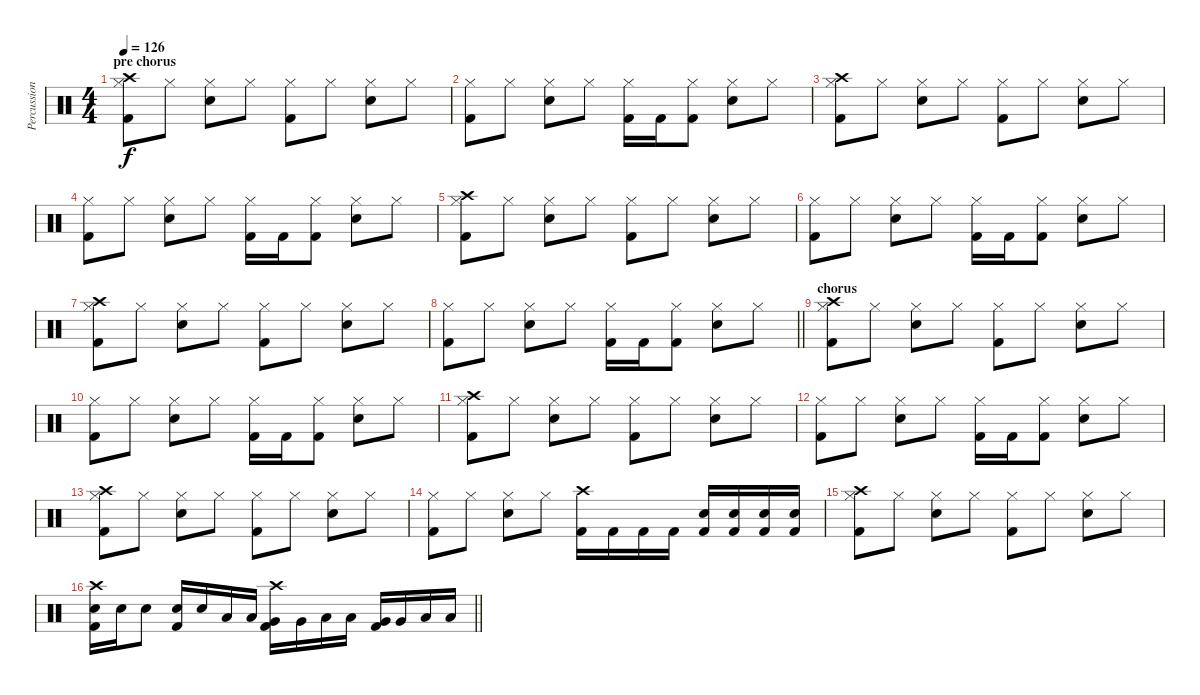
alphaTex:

\track ("Percussion" "Percussion") {instrument percussion}
\staff {score}
\articulation defaults
\ts (4 4)
\section ("" "pre chorus")
\tempo 126
\clef neutral
\ks c
("Hi-Hat (closed)" "Crash high (hit)" "Kick (hit) 2").8{dy f} "Hi-Hat (closed)".8 ("Hi-Hat (closed)" "Electric Snare (hit)").8 "Hi-Hat (closed)".8 ("Hi-Hat (closed)" "Kick (hit) 2").8 "Hi-Hat (closed)".8 ("Hi-Hat (closed)" "Electric Snare (hit)").8 "Hi-Hat (closed)".8 |
("Hi-Hat (closed)" "Kick (hit) 2").8 "Hi-Hat (closed)".8 ("Hi-Hat (closed)" "Electric Snare (hit)").8 "Hi-Hat (closed)".8 ("Hi-Hat (closed)" "Kick (hit) 2").16 "Kick (hit) 2".16 ("Hi-Hat (closed)" "Kick (hit) 2").8 ("Hi-Hat (closed)" "Electric Snare (hit)").8 "Hi-Hat (closed)".8 |
("Hi-Hat (closed)" "Crash high (hit)" "Kick (hit) 2").8 "Hi-Hat (closed)".8 ("Hi-Hat (closed)" "Electric Snare (hit)").8 "Hi-Hat (closed)".8 ("Hi-Hat (closed)" "Kick (hit) 2").8 "Hi-Hat (closed)".8 ("Hi-Hat (closed)" "Electric Snare (hit)").8 "Hi-Hat (closed)".8 |
("Hi-Hat (closed)" "Kick (hit) 2").8 "Hi-Hat (closed)".8 ("Hi-Hat (closed)" "Electric Snare (hit)").8 "Hi-Hat (closed)".8 ("Hi-Hat (closed)" "Kick (hit) 2").16 "Kick (hit) 2".16 ("Hi-Hat (closed)" "Kick (hit) 2").8 ("Hi-Hat (closed)" "Electric Snare (hit)").8 "Hi-Hat (closed)".8 |
("Hi-Hat (closed)" "Crash high (hit)" "Kick (hit) 2").8 "Hi-Hat (closed)".8 ("Hi-Hat (closed)" "Electric Snare (hit)").8 "Hi-Hat (closed)".8 ("Hi-Hat (closed)" "Kick (hit) 2").8 "Hi-Hat (closed)".8 ("Hi-Hat (closed)" "Electric Snare (hit)").8 "Hi-Hat (closed)".8 |
("Hi-Hat (closed)" "Kick (hit) 2").8 "Hi-Hat (closed)".8 ("Hi-Hat (closed)" "Electric Snare (hit)").8 "Hi-Hat (closed)".8 ("Hi-Hat (closed)" "Kick (hit) 2").16 "Kick (hit) 2".16 ("Hi-Hat (closed)" "Kick (hit) 2").8 ("Hi-Hat (closed)" "Electric Snare (hit)").8 "Hi-Hat (closed)".8 |
("Hi-Hat (closed)" "Crash high (hit)" "Kick (hit) 2").8 "Hi-Hat (closed)".8 ("Hi-Hat (closed)" "Electric Snare (hit)").8 "Hi-Hat (closed)".8 ("Hi-Hat (closed)" "Kick (hit) 2").8 "Hi-Hat (closed)".8 ("Hi-Hat (closed)" "Electric Snare (hit)").8 "Hi-Hat (closed)".8 |
\barLineRight lightlight
("Hi-Hat (closed)" "Kick (hit) 2").8 "Hi-Hat (closed)".8 ("Hi-Hat (closed)" "Electric Snare (hit)").8 "Hi-Hat (closed)".8 ("Hi-Hat (closed)" "Kick (hit) 2").16 "Kick (hit) 2".16 ("Hi-Hat (closed)" "Kick (hit) 2").8 ("Hi-Hat (closed)" "Electric Snare (hit)").8 "Hi-Hat (closed)".8 |
\section ("" "chorus")
("Hi-Hat (closed)" "Crash high (hit)" "Kick (hit) 2").8 "Hi-Hat (closed)".8 ("Hi-Hat (closed)" "Electric Snare (hit)").8 "Hi-Hat (closed)".8 ("Hi-Hat (closed)" "Kick (hit) 2").8 "Hi-Hat (closed)".8 ("Hi-Hat (closed)" "Electric Snare (hit)").8 "Hi-Hat (closed)".8 |
("Hi-Hat (closed)" "Kick (hit) 2").8 "Hi-Hat (closed)".8 ("Hi-Hat (closed)" "Electric Snare (hit)").8 "Hi-Hat (closed)".8 ("Hi-Hat (closed)" "Kick (hit) 2").16 "Kick (hit) 2".16 ("Hi-Hat (closed)" "Kick (hit) 2").8 ("Hi-Hat (closed)" "Electric Snare (hit)").8 "Hi-Hat (closed)".8 |
("Hi-Hat (closed)" "Crash high (hit)" "Kick (hit) 2").8 "Hi-Hat (closed)".8 ("Hi-Hat (closed)" "Electric Snare (hit)").8 "Hi-Hat (closed)".8 ("Hi-Hat (closed)" "Kick (hit) 2").8 "Hi-Hat (closed)".8 ("Hi-Hat (closed)" "Electric Snare (hit)").8 "Hi-Hat (closed)".8 |
("Hi-Hat (closed)" "Kick (hit) 2").8 "Hi-Hat (closed)".8 ("Hi-Hat (closed)" "Electric Snare (hit)").8 "Hi-Hat (closed)".8 ("Hi-Hat (closed)" "Kick (hit) 2").16 "Kick (hit) 2".16 ("Hi-Hat (closed)" "Kick (hit) 2").8 ("Hi-Hat (closed)" "Electric Snare (hit)").8 "Hi-Hat (closed)".8 |
("Hi-Hat (closed)" "Crash high (hit)" "Kick (hit) 2").8 "Hi-Hat (closed)".8 ("Hi-Hat (closed)" "Electric Snare (hit)").8 "Hi-Hat (closed)".8 ("Hi-Hat (closed)" "Kick (hit) 2").8 "Hi-Hat (closed)".8 ("Hi-Hat (closed)" "Electric Snare (hit)").8 "Hi-Hat (closed)".8 |
("Hi-Hat (closed)" "Kick (hit) 2").8 "Hi-Hat (closed)".8 ("Hi-Hat (closed)" "Electric Snare (hit)").8 "Hi-Hat (closed)".8 ("Kick (hit) 2" "Crash high (hit)").16 "Kick (hit) 2".16 "Kick (hit) 2".16 "Kick (hit) 2".16 ("Kick (hit) 2" "Electric Snare (hit)").16 ("Kick (hit) 2" "Electric Snare (hit)").16 ("Kick (hit) 2" "Electric Snare (hit)").16 ("Kick (hit) 2" "Electric Snare (hit)").16 |
("Hi-Hat (closed)" "Crash high (hit)" "Kick (hit) 2").8 "Hi-Hat (closed)".8 ("Hi-Hat (closed)" "Electric Snare (hit)").8 "Hi-Hat (closed)".8 ("Hi-Hat (closed)" "Kick (hit) 2").8 "Hi-Hat (closed)".8 ("Hi-Hat (closed)" "Electric Snare (hit)").8 "Hi-Hat (closed)".8 |
\barLineRight lightlight
("Electric Snare (hit)" "Crash high (hit)" "Kick (hit) 2").16 "Electric Snare (hit)".16 "Electric Snare (hit)".8 ("Electric Snare (hit)" "Kick (hit) 2").16 "Electric Snare (hit)".16 "Low Tom (hit)".16 "Low Tom (hit)".16 ("Very Low Tom (hit)" "Crash high (hit)" "Kick (hit) 2").16 "Very Low Tom (hit)".16 "Low Floor Tom (hit)".16 "Low Floor Tom (hit)".16 ("Very Low Tom (hit)" "Kick (hit) 2").16 "Very Low Tom (hit)".16 "Low Floor Tom (hit)".16 "Low Floor Tom (hit)".16
